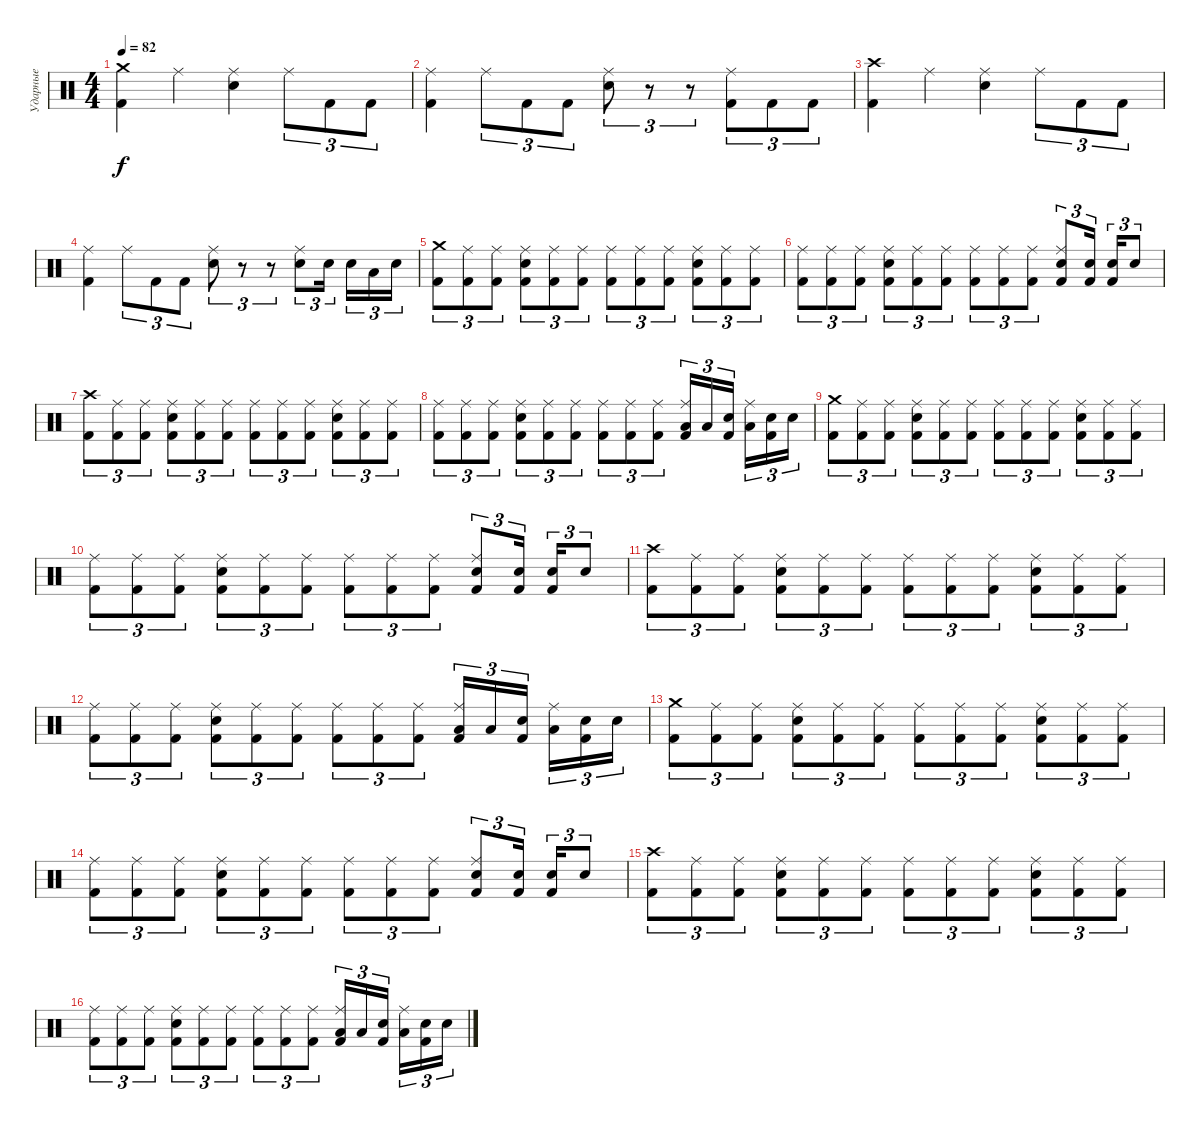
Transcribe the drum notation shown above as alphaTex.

\track ("Ударные" "Ударные") {instrument percussion}
\staff {score}
\articulation defaults
\ts (4 4)
\tempo 82
\clef neutral
\ks c
("Crash medium (hit)" "Kick (hit) 2").4{dy f} "Ride (middle)".4 ("Ride (middle)" "Electric Snare (hit)").4 "Ride (middle)".8{tu (3 2)} "Kick (hit) 2".8{tu (3 2)} "Kick (hit) 2".8{tu (3 2)} |
("Ride (middle)" "Kick (hit) 2").4 "Ride (middle)".8{tu (3 2)} "Kick (hit) 2".8{tu (3 2)} "Kick (hit) 2".8{tu (3 2)} ("Ride (middle)" "Electric Snare (hit)").8{tu (3 2)} r.8{tu (3 2)} r.8{tu (3 2)} ("Ride (middle)" "Kick (hit) 2").8{tu (3 2)} "Kick (hit) 2".8{tu (3 2)} "Kick (hit) 2".8{tu (3 2)} |
("Crash high (hit)" "Kick (hit) 2").4 "Ride (middle)".4 ("Ride (middle)" "Electric Snare (hit)").4 "Ride (middle)".8{tu (3 2)} "Kick (hit) 2".8{tu (3 2)} "Kick (hit) 2".8{tu (3 2)} |
("Ride (middle)" "Kick (hit) 2").4 "Ride (middle)".8{tu (3 2)} "Kick (hit) 2".8{tu (3 2)} "Kick (hit) 2".8{tu (3 2)} ("Ride (middle)" "Electric Snare (hit)").8{tu (3 2)} r.8{tu (3 2)} r.8{tu (3 2)} ("Ride (middle)" "Electric Snare (hit)").8{tu (3 2)} "Electric Snare (hit)".16{tu (3 2)} "Electric Snare (hit)".16{tu (3 2)} "Low Tom (hit)".16{tu (3 2)} "Electric Snare (hit)".16{tu (3 2)} |
("Crash medium (hit)" "Kick (hit) 2").8{tu (3 2)} ("Ride (middle)" "Kick (hit) 2").8{tu (3 2)} ("Ride (middle)" "Kick (hit) 2").8{tu (3 2)} ("Ride (middle)" "Electric Snare (hit)" "Kick (hit) 2").8{tu (3 2)} ("Ride (middle)" "Kick (hit) 2").8{tu (3 2)} ("Ride (middle)" "Kick (hit) 2").8{tu (3 2)} ("Ride (middle)" "Kick (hit) 2").8{tu (3 2)} ("Ride (middle)" "Kick (hit) 2").8{tu (3 2)} ("Ride (middle)" "Kick (hit) 2").8{tu (3 2)} ("Ride (middle)" "Electric Snare (hit)" "Kick (hit) 2").8{tu (3 2)} ("Ride (middle)" "Kick (hit) 2").8{tu (3 2)} ("Ride (middle)" "Kick (hit) 2").8{tu (3 2)} |
("Ride (middle)" "Kick (hit) 2").8{tu (3 2)} ("Ride (middle)" "Kick (hit) 2").8{tu (3 2)} ("Ride (middle)" "Kick (hit) 2").8{tu (3 2)} ("Ride (middle)" "Electric Snare (hit)" "Kick (hit) 2").8{tu (3 2)} ("Ride (middle)" "Kick (hit) 2").8{tu (3 2)} ("Ride (middle)" "Kick (hit) 2").8{tu (3 2)} ("Ride (middle)" "Kick (hit) 2").8{tu (3 2)} ("Ride (middle)" "Kick (hit) 2").8{tu (3 2)} ("Ride (middle)" "Kick (hit) 2").8{tu (3 2)} ("Ride (middle)" "Electric Snare (hit)" "Kick (hit) 2").8{tu (3 2)} ("Electric Snare (hit)" "Kick (hit) 2").16{tu (3 2)} ("Electric Snare (hit)" "Kick (hit) 2").16{tu (3 2)} "Electric Snare (hit)".8{tu (3 2)} |
("Crash high (hit)" "Kick (hit) 2").8{tu (3 2)} ("Ride (middle)" "Kick (hit) 2").8{tu (3 2)} ("Ride (middle)" "Kick (hit) 2").8{tu (3 2)} ("Ride (middle)" "Electric Snare (hit)" "Kick (hit) 2").8{tu (3 2)} ("Ride (middle)" "Kick (hit) 2").8{tu (3 2)} ("Ride (middle)" "Kick (hit) 2").8{tu (3 2)} ("Ride (middle)" "Kick (hit) 2").8{tu (3 2)} ("Ride (middle)" "Kick (hit) 2").8{tu (3 2)} ("Ride (middle)" "Kick (hit) 2").8{tu (3 2)} ("Ride (middle)" "Electric Snare (hit)" "Kick (hit) 2").8{tu (3 2)} ("Ride (middle)" "Kick (hit) 2").8{tu (3 2)} ("Ride (middle)" "Kick (hit) 2").8{tu (3 2)} |
("Ride (middle)" "Kick (hit) 2").8{tu (3 2)} ("Ride (middle)" "Kick (hit) 2").8{tu (3 2)} ("Ride (middle)" "Kick (hit) 2").8{tu (3 2)} ("Ride (middle)" "Electric Snare (hit)" "Kick (hit) 2").8{tu (3 2)} ("Ride (middle)" "Kick (hit) 2").8{tu (3 2)} ("Ride (middle)" "Kick (hit) 2").8{tu (3 2)} ("Ride (middle)" "Kick (hit) 2").8{tu (3 2)} ("Ride (middle)" "Kick (hit) 2").8{tu (3 2)} ("Ride (middle)" "Kick (hit) 2").8{tu (3 2)} ("Ride (middle)" "Low Tom (hit)" "Kick (hit) 2").16{tu (3 2)} "Low Tom (hit)".16{tu (3 2)} ("Electric Snare (hit)" "Kick (hit) 2").16{tu (3 2)} ("Ride (middle)" "Low Tom (hit)").16{tu (3 2)} ("Electric Snare (hit)" "Kick (hit) 2").16{tu (3 2)} "Electric Snare (hit)".16{tu (3 2)} |
("Crash medium (hit)" "Kick (hit) 2").8{tu (3 2)} ("Ride (middle)" "Kick (hit) 2").8{tu (3 2)} ("Ride (middle)" "Kick (hit) 2").8{tu (3 2)} ("Ride (middle)" "Electric Snare (hit)" "Kick (hit) 2").8{tu (3 2)} ("Ride (middle)" "Kick (hit) 2").8{tu (3 2)} ("Ride (middle)" "Kick (hit) 2").8{tu (3 2)} ("Ride (middle)" "Kick (hit) 2").8{tu (3 2)} ("Ride (middle)" "Kick (hit) 2").8{tu (3 2)} ("Ride (middle)" "Kick (hit) 2").8{tu (3 2)} ("Ride (middle)" "Electric Snare (hit)" "Kick (hit) 2").8{tu (3 2)} ("Ride (middle)" "Kick (hit) 2").8{tu (3 2)} ("Ride (middle)" "Kick (hit) 2").8{tu (3 2)} |
("Ride (middle)" "Kick (hit) 2").8{tu (3 2)} ("Ride (middle)" "Kick (hit) 2").8{tu (3 2)} ("Ride (middle)" "Kick (hit) 2").8{tu (3 2)} ("Ride (middle)" "Electric Snare (hit)" "Kick (hit) 2").8{tu (3 2)} ("Ride (middle)" "Kick (hit) 2").8{tu (3 2)} ("Ride (middle)" "Kick (hit) 2").8{tu (3 2)} ("Ride (middle)" "Kick (hit) 2").8{tu (3 2)} ("Ride (middle)" "Kick (hit) 2").8{tu (3 2)} ("Ride (middle)" "Kick (hit) 2").8{tu (3 2)} ("Ride (middle)" "Electric Snare (hit)" "Kick (hit) 2").8{tu (3 2)} ("Electric Snare (hit)" "Kick (hit) 2").16{tu (3 2)} ("Electric Snare (hit)" "Kick (hit) 2").16{tu (3 2)} "Electric Snare (hit)".8{tu (3 2)} |
("Crash high (hit)" "Kick (hit) 2").8{tu (3 2)} ("Ride (middle)" "Kick (hit) 2").8{tu (3 2)} ("Ride (middle)" "Kick (hit) 2").8{tu (3 2)} ("Ride (middle)" "Electric Snare (hit)" "Kick (hit) 2").8{tu (3 2)} ("Ride (middle)" "Kick (hit) 2").8{tu (3 2)} ("Ride (middle)" "Kick (hit) 2").8{tu (3 2)} ("Ride (middle)" "Kick (hit) 2").8{tu (3 2)} ("Ride (middle)" "Kick (hit) 2").8{tu (3 2)} ("Ride (middle)" "Kick (hit) 2").8{tu (3 2)} ("Ride (middle)" "Electric Snare (hit)" "Kick (hit) 2").8{tu (3 2)} ("Ride (middle)" "Kick (hit) 2").8{tu (3 2)} ("Ride (middle)" "Kick (hit) 2").8{tu (3 2)} |
("Ride (middle)" "Kick (hit) 2").8{tu (3 2)} ("Ride (middle)" "Kick (hit) 2").8{tu (3 2)} ("Ride (middle)" "Kick (hit) 2").8{tu (3 2)} ("Ride (middle)" "Electric Snare (hit)" "Kick (hit) 2").8{tu (3 2)} ("Ride (middle)" "Kick (hit) 2").8{tu (3 2)} ("Ride (middle)" "Kick (hit) 2").8{tu (3 2)} ("Ride (middle)" "Kick (hit) 2").8{tu (3 2)} ("Ride (middle)" "Kick (hit) 2").8{tu (3 2)} ("Ride (middle)" "Kick (hit) 2").8{tu (3 2)} ("Ride (middle)" "Low Tom (hit)" "Kick (hit) 2").16{tu (3 2)} "Low Tom (hit)".16{tu (3 2)} ("Electric Snare (hit)" "Kick (hit) 2").16{tu (3 2)} ("Ride (middle)" "Low Tom (hit)").16{tu (3 2)} ("Electric Snare (hit)" "Kick (hit) 2").16{tu (3 2)} "Electric Snare (hit)".16{tu (3 2)} |
("Crash medium (hit)" "Kick (hit) 2").8{tu (3 2)} ("Ride (middle)" "Kick (hit) 2").8{tu (3 2)} ("Ride (middle)" "Kick (hit) 2").8{tu (3 2)} ("Ride (middle)" "Electric Snare (hit)" "Kick (hit) 2").8{tu (3 2)} ("Ride (middle)" "Kick (hit) 2").8{tu (3 2)} ("Ride (middle)" "Kick (hit) 2").8{tu (3 2)} ("Ride (middle)" "Kick (hit) 2").8{tu (3 2)} ("Ride (middle)" "Kick (hit) 2").8{tu (3 2)} ("Ride (middle)" "Kick (hit) 2").8{tu (3 2)} ("Ride (middle)" "Electric Snare (hit)" "Kick (hit) 2").8{tu (3 2)} ("Ride (middle)" "Kick (hit) 2").8{tu (3 2)} ("Ride (middle)" "Kick (hit) 2").8{tu (3 2)} |
("Ride (middle)" "Kick (hit) 2").8{tu (3 2)} ("Ride (middle)" "Kick (hit) 2").8{tu (3 2)} ("Ride (middle)" "Kick (hit) 2").8{tu (3 2)} ("Ride (middle)" "Electric Snare (hit)" "Kick (hit) 2").8{tu (3 2)} ("Ride (middle)" "Kick (hit) 2").8{tu (3 2)} ("Ride (middle)" "Kick (hit) 2").8{tu (3 2)} ("Ride (middle)" "Kick (hit) 2").8{tu (3 2)} ("Ride (middle)" "Kick (hit) 2").8{tu (3 2)} ("Ride (middle)" "Kick (hit) 2").8{tu (3 2)} ("Ride (middle)" "Electric Snare (hit)" "Kick (hit) 2").8{tu (3 2)} ("Electric Snare (hit)" "Kick (hit) 2").16{tu (3 2)} ("Electric Snare (hit)" "Kick (hit) 2").16{tu (3 2)} "Electric Snare (hit)".8{tu (3 2)} |
("Crash high (hit)" "Kick (hit) 2").8{tu (3 2)} ("Ride (middle)" "Kick (hit) 2").8{tu (3 2)} ("Ride (middle)" "Kick (hit) 2").8{tu (3 2)} ("Ride (middle)" "Electric Snare (hit)" "Kick (hit) 2").8{tu (3 2)} ("Ride (middle)" "Kick (hit) 2").8{tu (3 2)} ("Ride (middle)" "Kick (hit) 2").8{tu (3 2)} ("Ride (middle)" "Kick (hit) 2").8{tu (3 2)} ("Ride (middle)" "Kick (hit) 2").8{tu (3 2)} ("Ride (middle)" "Kick (hit) 2").8{tu (3 2)} ("Ride (middle)" "Electric Snare (hit)" "Kick (hit) 2").8{tu (3 2)} ("Ride (middle)" "Kick (hit) 2").8{tu (3 2)} ("Ride (middle)" "Kick (hit) 2").8{tu (3 2)} |
("Ride (middle)" "Kick (hit) 2").8{tu (3 2)} ("Ride (middle)" "Kick (hit) 2").8{tu (3 2)} ("Ride (middle)" "Kick (hit) 2").8{tu (3 2)} ("Ride (middle)" "Electric Snare (hit)" "Kick (hit) 2").8{tu (3 2)} ("Ride (middle)" "Kick (hit) 2").8{tu (3 2)} ("Ride (middle)" "Kick (hit) 2").8{tu (3 2)} ("Ride (middle)" "Kick (hit) 2").8{tu (3 2)} ("Ride (middle)" "Kick (hit) 2").8{tu (3 2)} ("Ride (middle)" "Kick (hit) 2").8{tu (3 2)} ("Ride (middle)" "Low Tom (hit)" "Kick (hit) 2").16{tu (3 2)} "Low Tom (hit)".16{tu (3 2)} ("Electric Snare (hit)" "Kick (hit) 2").16{tu (3 2)} ("Ride (middle)" "Low Tom (hit)").16{tu (3 2)} ("Electric Snare (hit)" "Kick (hit) 2").16{tu (3 2)} "Electric Snare (hit)".16{tu (3 2)}
